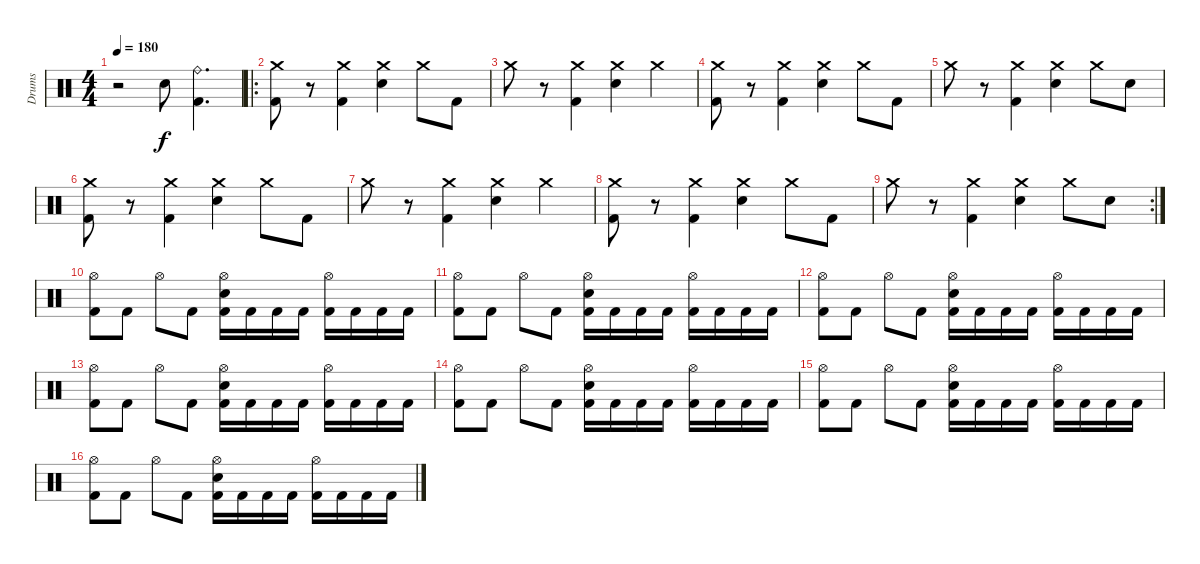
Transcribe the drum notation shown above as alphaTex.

\track ("Drums" "Drums") {instrument percussion}
\staff {score}
\articulation defaults
\ts (4 4)
\tempo 180
\clef neutral
\ks c
r.2{dy f} "Electric Snare (hit)".8 ("Ride (bell)" "Kick (hit) 2").4{d} |
\ro
("Crash medium (hit)" "Kick (hit) 2").8 r.8 ("Crash medium (hit)" "Kick (hit) 2").4 ("Crash medium (hit)" "Electric Snare (hit)").4 "Crash medium (hit)".8 "Kick (hit) 2".8 |
"Crash medium (hit)".8 r.8 ("Crash medium (hit)" "Kick (hit) 2").4 ("Crash medium (hit)" "Electric Snare (hit)").4 "Crash medium (hit)".4 |
("Crash medium (hit)" "Kick (hit) 2").8 r.8 ("Crash medium (hit)" "Kick (hit) 2").4 ("Crash medium (hit)" "Electric Snare (hit)").4 "Crash medium (hit)".8 "Kick (hit) 2".8 |
"Crash medium (hit)".8 r.8 ("Crash medium (hit)" "Kick (hit) 2").4 ("Crash medium (hit)" "Electric Snare (hit)").4 "Crash medium (hit)".8 "Electric Snare (hit)".8 |
("Crash medium (hit)" "Kick (hit) 2").8 r.8 ("Crash medium (hit)" "Kick (hit) 2").4 ("Crash medium (hit)" "Electric Snare (hit)").4 "Crash medium (hit)".8 "Kick (hit) 2".8 |
"Crash medium (hit)".8 r.8 ("Crash medium (hit)" "Kick (hit) 2").4 ("Crash medium (hit)" "Electric Snare (hit)").4 "Crash medium (hit)".4 |
("Crash medium (hit)" "Kick (hit) 2").8 r.8 ("Crash medium (hit)" "Kick (hit) 2").4 ("Crash medium (hit)" "Electric Snare (hit)").4 "Crash medium (hit)".8 "Kick (hit) 2".8 |
\rc 2 "Crash medium (hit)".8
r.8 ("Crash medium (hit)" "Kick (hit) 2").4 ("Crash medium (hit)" "Electric Snare (hit)").4 "Crash medium (hit)".8 "Electric Snare (hit)".8 |
("Hi-Hat (open)" "Kick (hit) 2").8 "Kick (hit) 2".8 "Hi-Hat (open)".8 "Kick (hit) 2".8 ("Hi-Hat (open)" "Electric Snare (hit)" "Kick (hit) 2").16 "Kick (hit) 2".16 "Kick (hit) 2".16 "Kick (hit) 2".16 ("Hi-Hat (open)" "Kick (hit) 2").16 "Kick (hit) 2".16 "Kick (hit) 2".16 "Kick (hit) 2".16 |
("Hi-Hat (open)" "Kick (hit) 2").8 "Kick (hit) 2".8 "Hi-Hat (open)".8 "Kick (hit) 2".8 ("Hi-Hat (open)" "Electric Snare (hit)" "Kick (hit) 2").16 "Kick (hit) 2".16 "Kick (hit) 2".16 "Kick (hit) 2".16 ("Hi-Hat (open)" "Kick (hit) 2").16 "Kick (hit) 2".16 "Kick (hit) 2".16 "Kick (hit) 2".16 |
("Hi-Hat (open)" "Kick (hit) 2").8 "Kick (hit) 2".8 "Hi-Hat (open)".8 "Kick (hit) 2".8 ("Hi-Hat (open)" "Electric Snare (hit)" "Kick (hit) 2").16 "Kick (hit) 2".16 "Kick (hit) 2".16 "Kick (hit) 2".16 ("Hi-Hat (open)" "Kick (hit) 2").16 "Kick (hit) 2".16 "Kick (hit) 2".16 "Kick (hit) 2".16 |
("Hi-Hat (open)" "Kick (hit) 2").8 "Kick (hit) 2".8 "Hi-Hat (open)".8 "Kick (hit) 2".8 ("Hi-Hat (open)" "Electric Snare (hit)" "Kick (hit) 2").16 "Kick (hit) 2".16 "Kick (hit) 2".16 "Kick (hit) 2".16 ("Hi-Hat (open)" "Kick (hit) 2").16 "Kick (hit) 2".16 "Kick (hit) 2".16 "Kick (hit) 2".16 |
("Hi-Hat (open)" "Kick (hit) 2").8 "Kick (hit) 2".8 "Hi-Hat (open)".8 "Kick (hit) 2".8 ("Hi-Hat (open)" "Electric Snare (hit)" "Kick (hit) 2").16 "Kick (hit) 2".16 "Kick (hit) 2".16 "Kick (hit) 2".16 ("Hi-Hat (open)" "Kick (hit) 2").16 "Kick (hit) 2".16 "Kick (hit) 2".16 "Kick (hit) 2".16 |
("Hi-Hat (open)" "Kick (hit) 2").8 "Kick (hit) 2".8 "Hi-Hat (open)".8 "Kick (hit) 2".8 ("Hi-Hat (open)" "Electric Snare (hit)" "Kick (hit) 2").16 "Kick (hit) 2".16 "Kick (hit) 2".16 "Kick (hit) 2".16 ("Hi-Hat (open)" "Kick (hit) 2").16 "Kick (hit) 2".16 "Kick (hit) 2".16 "Kick (hit) 2".16 |
("Hi-Hat (open)" "Kick (hit) 2").8 "Kick (hit) 2".8 "Hi-Hat (open)".8 "Kick (hit) 2".8 ("Hi-Hat (open)" "Electric Snare (hit)" "Kick (hit) 2").16 "Kick (hit) 2".16 "Kick (hit) 2".16 "Kick (hit) 2".16 ("Hi-Hat (open)" "Kick (hit) 2").16 "Kick (hit) 2".16 "Kick (hit) 2".16 "Kick (hit) 2".16
